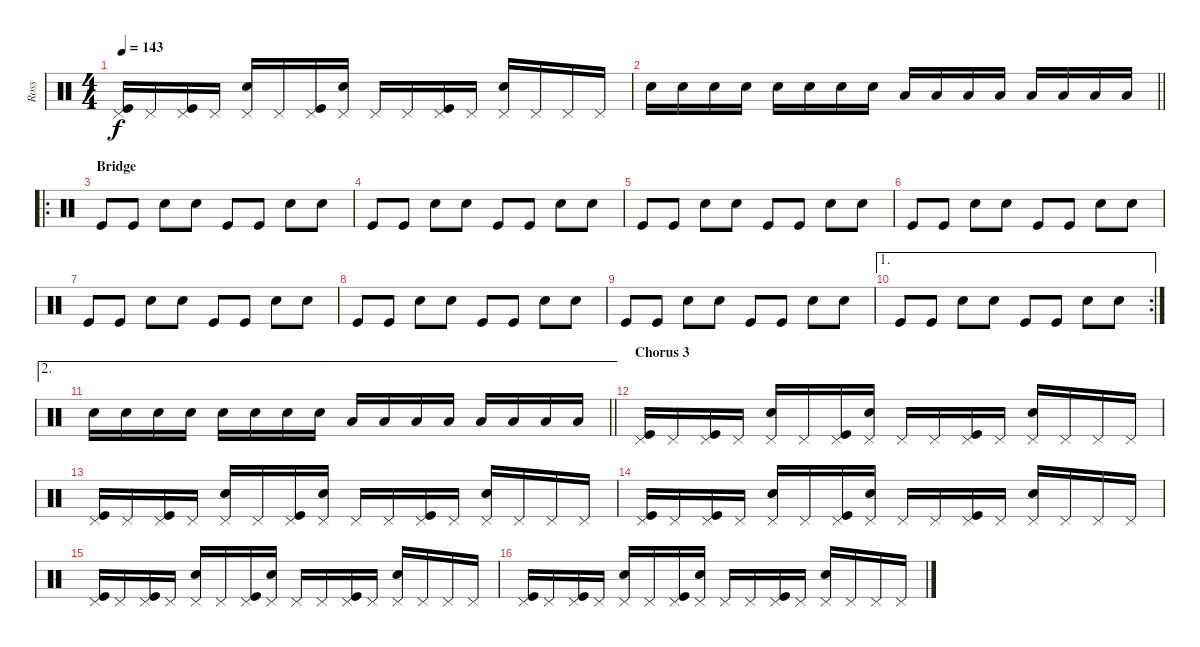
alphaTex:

\track ("Ross" "Ross") {instrument percussion}
\staff {score}
\articulation defaults
\ts (4 4)
\tempo 143
\clef neutral
\ks c
("Pedal Hi-Hat (hit)" "Kick (hit)").16{dy f} "Pedal Hi-Hat (hit)".16 ("Pedal Hi-Hat (hit)" "Kick (hit)").16 "Pedal Hi-Hat (hit)".16 ("Pedal Hi-Hat (hit)" "Snare (hit) 2").16 "Pedal Hi-Hat (hit)".16 ("Pedal Hi-Hat (hit)" "Kick (hit)").16 ("Pedal Hi-Hat (hit)" "Snare (hit) 2").16 "Pedal Hi-Hat (hit)".16 "Pedal Hi-Hat (hit)".16 ("Pedal Hi-Hat (hit)" "Kick (hit)").16 "Pedal Hi-Hat (hit)".16 ("Pedal Hi-Hat (hit)" "Snare (hit) 2").16 "Pedal Hi-Hat (hit)".16 "Pedal Hi-Hat (hit)".16 "Pedal Hi-Hat (hit)".16 |
\barLineRight lightlight "Snare (hit) 2".16 "Snare (hit) 2".16 "Snare (hit) 2".16 "Snare (hit) 2".16 "Snare (hit) 2".16 "Snare (hit) 2".16 "Snare (hit) 2".16 "Snare (hit) 2".16 "Low Tom (hit)".16 "Low Tom (hit)".16 "Low Tom (hit)".16 "Low Tom (hit)".16 "Low Tom (hit)".16 "Low Tom (hit)".16 "Low Tom (hit)".16 "Low Tom (hit)".16
|
\ro
\section ("" "Bridge")
"Kick (hit)".8 "Kick (hit)".8 "Snare (hit) 2".8 "Snare (hit) 2".8 "Kick (hit)".8 "Kick (hit)".8 "Snare (hit) 2".8 "Snare (hit) 2".8 |
"Kick (hit)".8 "Kick (hit)".8 "Snare (hit) 2".8 "Snare (hit) 2".8 "Kick (hit)".8 "Kick (hit)".8 "Snare (hit) 2".8 "Snare (hit) 2".8 |
"Kick (hit)".8 "Kick (hit)".8 "Snare (hit) 2".8 "Snare (hit) 2".8 "Kick (hit)".8 "Kick (hit)".8 "Snare (hit) 2".8 "Snare (hit) 2".8 |
"Kick (hit)".8 "Kick (hit)".8 "Snare (hit) 2".8 "Snare (hit) 2".8 "Kick (hit)".8 "Kick (hit)".8 "Snare (hit) 2".8 "Snare (hit) 2".8 |
"Kick (hit)".8 "Kick (hit)".8 "Snare (hit) 2".8 "Snare (hit) 2".8 "Kick (hit)".8 "Kick (hit)".8 "Snare (hit) 2".8 "Snare (hit) 2".8 |
"Kick (hit)".8 "Kick (hit)".8 "Snare (hit) 2".8 "Snare (hit) 2".8 "Kick (hit)".8 "Kick (hit)".8 "Snare (hit) 2".8 "Snare (hit) 2".8 |
"Kick (hit)".8 "Kick (hit)".8 "Snare (hit) 2".8 "Snare (hit) 2".8 "Kick (hit)".8 "Kick (hit)".8 "Snare (hit) 2".8 "Snare (hit) 2".8 |
\ae 1
\rc 2 "Kick (hit)".8 "Kick (hit)".8 "Snare (hit) 2".8 "Snare (hit) 2".8 "Kick (hit)".8 "Kick (hit)".8 "Snare (hit) 2".8 "Snare (hit) 2".8
|
\ae 2
\barLineRight lightlight "Snare (hit) 2".16 "Snare (hit) 2".16 "Snare (hit) 2".16 "Snare (hit) 2".16 "Snare (hit) 2".16 "Snare (hit) 2".16 "Snare (hit) 2".16 "Snare (hit) 2".16 "Low Tom (hit)".16 "Low Tom (hit)".16 "Low Tom (hit)".16 "Low Tom (hit)".16 "Low Tom (hit)".16 "Low Tom (hit)".16 "Low Tom (hit)".16 "Low Tom (hit)".16
|
\section ("" "Chorus 3")
("Pedal Hi-Hat (hit)" "Kick (hit)").16 "Pedal Hi-Hat (hit)".16 ("Pedal Hi-Hat (hit)" "Kick (hit)").16 "Pedal Hi-Hat (hit)".16 ("Pedal Hi-Hat (hit)" "Snare (hit) 2").16 "Pedal Hi-Hat (hit)".16 ("Pedal Hi-Hat (hit)" "Kick (hit)").16 ("Pedal Hi-Hat (hit)" "Snare (hit) 2").16 "Pedal Hi-Hat (hit)".16 "Pedal Hi-Hat (hit)".16 ("Pedal Hi-Hat (hit)" "Kick (hit)").16 "Pedal Hi-Hat (hit)".16 ("Pedal Hi-Hat (hit)" "Snare (hit) 2").16 "Pedal Hi-Hat (hit)".16 "Pedal Hi-Hat (hit)".16 "Pedal Hi-Hat (hit)".16 |
("Pedal Hi-Hat (hit)" "Kick (hit)").16 "Pedal Hi-Hat (hit)".16 ("Pedal Hi-Hat (hit)" "Kick (hit)").16 "Pedal Hi-Hat (hit)".16 ("Pedal Hi-Hat (hit)" "Snare (hit) 2").16 "Pedal Hi-Hat (hit)".16 ("Pedal Hi-Hat (hit)" "Kick (hit)").16 ("Pedal Hi-Hat (hit)" "Snare (hit) 2").16 "Pedal Hi-Hat (hit)".16 "Pedal Hi-Hat (hit)".16 ("Pedal Hi-Hat (hit)" "Kick (hit)").16 "Pedal Hi-Hat (hit)".16 ("Pedal Hi-Hat (hit)" "Snare (hit) 2").16 "Pedal Hi-Hat (hit)".16 "Pedal Hi-Hat (hit)".16 "Pedal Hi-Hat (hit)".16 |
("Pedal Hi-Hat (hit)" "Kick (hit)").16 "Pedal Hi-Hat (hit)".16 ("Pedal Hi-Hat (hit)" "Kick (hit)").16 "Pedal Hi-Hat (hit)".16 ("Pedal Hi-Hat (hit)" "Snare (hit) 2").16 "Pedal Hi-Hat (hit)".16 ("Pedal Hi-Hat (hit)" "Kick (hit)").16 ("Pedal Hi-Hat (hit)" "Snare (hit) 2").16 "Pedal Hi-Hat (hit)".16 "Pedal Hi-Hat (hit)".16 ("Pedal Hi-Hat (hit)" "Kick (hit)").16 "Pedal Hi-Hat (hit)".16 ("Pedal Hi-Hat (hit)" "Snare (hit) 2").16 "Pedal Hi-Hat (hit)".16 "Pedal Hi-Hat (hit)".16 "Pedal Hi-Hat (hit)".16 |
("Pedal Hi-Hat (hit)" "Kick (hit)").16 "Pedal Hi-Hat (hit)".16 ("Pedal Hi-Hat (hit)" "Kick (hit)").16 "Pedal Hi-Hat (hit)".16 ("Pedal Hi-Hat (hit)" "Snare (hit) 2").16 "Pedal Hi-Hat (hit)".16 ("Pedal Hi-Hat (hit)" "Kick (hit)").16 ("Pedal Hi-Hat (hit)" "Snare (hit) 2").16 "Pedal Hi-Hat (hit)".16 "Pedal Hi-Hat (hit)".16 ("Pedal Hi-Hat (hit)" "Kick (hit)").16 "Pedal Hi-Hat (hit)".16 ("Pedal Hi-Hat (hit)" "Snare (hit) 2").16 "Pedal Hi-Hat (hit)".16 "Pedal Hi-Hat (hit)".16 "Pedal Hi-Hat (hit)".16 |
("Pedal Hi-Hat (hit)" "Kick (hit)").16 "Pedal Hi-Hat (hit)".16 ("Pedal Hi-Hat (hit)" "Kick (hit)").16 "Pedal Hi-Hat (hit)".16 ("Pedal Hi-Hat (hit)" "Snare (hit) 2").16 "Pedal Hi-Hat (hit)".16 ("Pedal Hi-Hat (hit)" "Kick (hit)").16 ("Pedal Hi-Hat (hit)" "Snare (hit) 2").16 "Pedal Hi-Hat (hit)".16 "Pedal Hi-Hat (hit)".16 ("Pedal Hi-Hat (hit)" "Kick (hit)").16 "Pedal Hi-Hat (hit)".16 ("Pedal Hi-Hat (hit)" "Snare (hit) 2").16 "Pedal Hi-Hat (hit)".16 "Pedal Hi-Hat (hit)".16 "Pedal Hi-Hat (hit)".16
